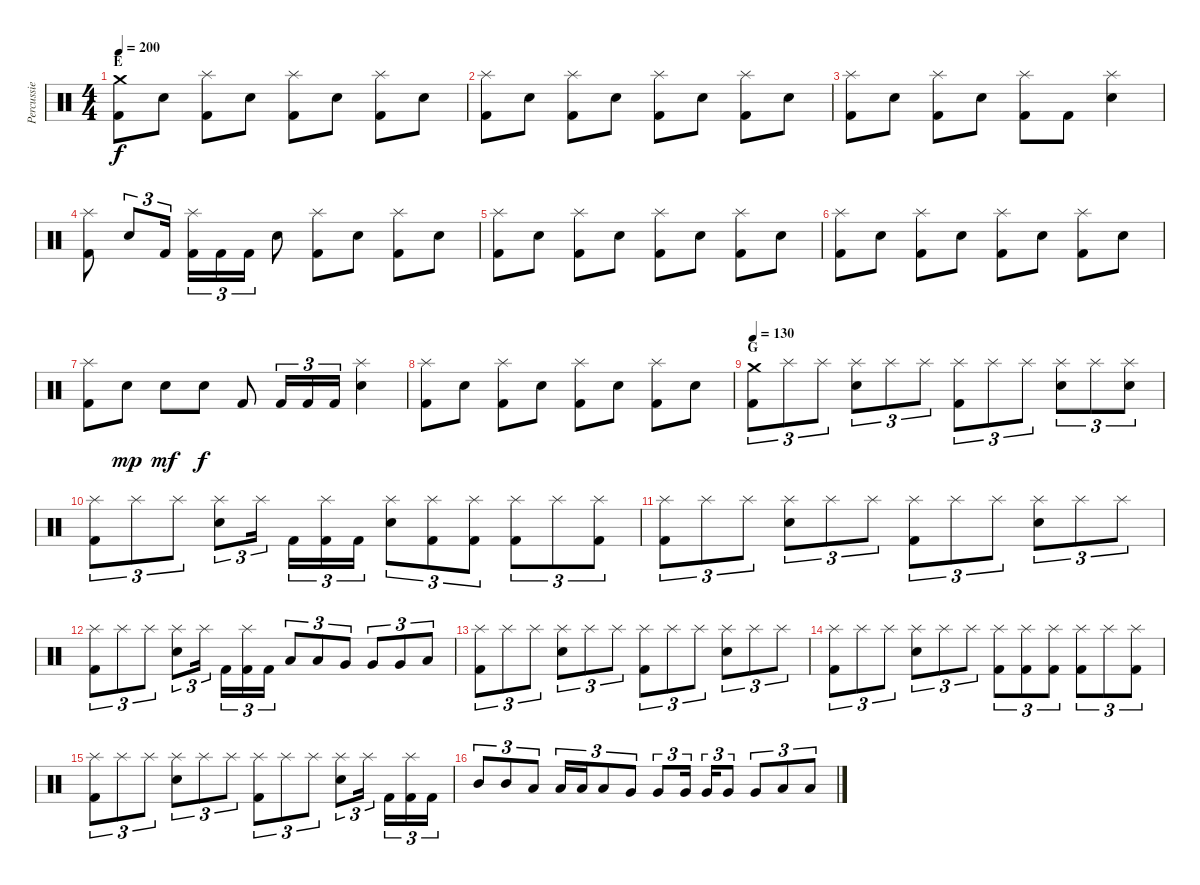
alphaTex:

\track ("Percussie" "Percussie") {instrument percussion}
\staff {score}
\articulation defaults
\ts (4 4)
\section ("" "E")
\tempo 200
\clef neutral
\ks c
("Crash medium (hit)" "Kick (hit) 2").8{dy f} "Electric Snare (hit)".8 ("Splash (hit)" "Kick (hit) 2").8 "Electric Snare (hit)".8 ("Splash (hit)" "Kick (hit) 2").8 "Electric Snare (hit)".8 ("Splash (hit)" "Kick (hit) 2").8 "Electric Snare (hit)".8 |
("Splash (hit)" "Kick (hit) 2").8 "Electric Snare (hit)".8 ("Splash (hit)" "Kick (hit) 2").8 "Electric Snare (hit)".8 ("Splash (hit)" "Kick (hit) 2").8 "Electric Snare (hit)".8 ("Splash (hit)" "Kick (hit) 2").8 "Electric Snare (hit)".8 |
("Splash (hit)" "Kick (hit) 2").8 "Electric Snare (hit)".8 ("Splash (hit)" "Kick (hit) 2").8 "Electric Snare (hit)".8 ("Splash (hit)" "Kick (hit) 2").8 "Kick (hit) 2".8 ("Splash (hit)" "Electric Snare (hit)").4 |
("Splash (hit)" "Kick (hit) 2").8 "Electric Snare (hit)".8{tu (3 2)} "Kick (hit) 2".16{tu (3 2)} ("Splash (hit)" "Kick (hit) 2").16{tu (3 2)} "Kick (hit) 2".16{tu (3 2)} "Kick (hit) 2".16{tu (3 2)} "Electric Snare (hit)".8 ("Splash (hit)" "Kick (hit) 2").8 "Electric Snare (hit)".8 ("Splash (hit)" "Kick (hit) 2").8 "Electric Snare (hit)".8 |
("Splash (hit)" "Kick (hit) 2").8 "Electric Snare (hit)".8 ("Splash (hit)" "Kick (hit) 2").8 "Electric Snare (hit)".8 ("Splash (hit)" "Kick (hit) 2").8 "Electric Snare (hit)".8 ("Splash (hit)" "Kick (hit) 2").8 "Electric Snare (hit)".8 |
("Splash (hit)" "Kick (hit) 2").8 "Electric Snare (hit)".8 ("Splash (hit)" "Kick (hit) 2").8 "Electric Snare (hit)".8 ("Splash (hit)" "Kick (hit) 2").8 "Electric Snare (hit)".8 ("Splash (hit)" "Kick (hit) 2").8 "Electric Snare (hit)".8 |
("Splash (hit)" "Kick (hit) 2").8 "Electric Snare (hit)".8{dy mp} "Electric Snare (hit)".8{dy mf} "Electric Snare (hit)".8{dy f} "Kick (hit) 2".8 "Kick (hit) 2".16{tu (3 2)} "Kick (hit) 2".16{tu (3 2)} "Kick (hit) 2".16{tu (3 2)} ("Splash (hit)" "Electric Snare (hit)").4 |
("Splash (hit)" "Kick (hit) 2").8 "Electric Snare (hit)".8 ("Splash (hit)" "Kick (hit) 2").8 "Electric Snare (hit)".8 ("Splash (hit)" "Kick (hit) 2").8 "Electric Snare (hit)".8 ("Splash (hit)" "Kick (hit) 2").8 "Electric Snare (hit)".8 |
\section ("" "G")
\tempo 130
("Crash medium (hit)" "Kick (hit) 2").8{tu (3 2)} "Splash (hit)".8{tu (3 2)} "Splash (hit)".8{tu (3 2)} ("Splash (hit)" "Electric Snare (hit)").8{tu (3 2)} "Splash (hit)".8{tu (3 2)} "Splash (hit)".8{tu (3 2)} ("Splash (hit)" "Kick (hit) 2").8{tu (3 2)} "Splash (hit)".8{tu (3 2)} "Splash (hit)".8{tu (3 2)} ("Splash (hit)" "Electric Snare (hit)").8{tu (3 2)} "Splash (hit)".8{tu (3 2)} ("Splash (hit)" "Electric Snare (hit)").8{tu (3 2)} |
("Splash (hit)" "Kick (hit) 2").8{tu (3 2)} "Splash (hit)".8{tu (3 2)} "Splash (hit)".8{tu (3 2)} ("Splash (hit)" "Electric Snare (hit)").8{tu (3 2)} "Splash (hit)".16{tu (3 2)} "Kick (hit) 2".16{tu (3 2)} ("Splash (hit)" "Kick (hit) 2").16{tu (3 2)} "Kick (hit) 2".16{tu (3 2)} ("Splash (hit)" "Electric Snare (hit)").8{tu (3 2)} ("Splash (hit)" "Kick (hit) 2").8{tu (3 2)} ("Splash (hit)" "Kick (hit) 2").8{tu (3 2)} ("Splash (hit)" "Kick (hit) 2").8{tu (3 2)} "Splash (hit)".8{tu (3 2)} ("Splash (hit)" "Kick (hit) 2").8{tu (3 2)} |
("Splash (hit)" "Kick (hit) 2").8{tu (3 2)} "Splash (hit)".8{tu (3 2)} "Splash (hit)".8{tu (3 2)} ("Splash (hit)" "Electric Snare (hit)").8{tu (3 2)} "Splash (hit)".8{tu (3 2)} "Splash (hit)".8{tu (3 2)} ("Splash (hit)" "Kick (hit) 2").8{tu (3 2)} "Splash (hit)".8{tu (3 2)} "Splash (hit)".8{tu (3 2)} ("Splash (hit)" "Electric Snare (hit)").8{tu (3 2)} "Splash (hit)".8{tu (3 2)} "Splash (hit)".8{tu (3 2)} |
("Splash (hit)" "Kick (hit) 2").8{tu (3 2)} "Splash (hit)".8{tu (3 2)} "Splash (hit)".8{tu (3 2)} ("Splash (hit)" "Electric Snare (hit)").8{tu (3 2)} "Splash (hit)".16{tu (3 2)} "Kick (hit) 2".16{tu (3 2)} ("Splash (hit)" "Kick (hit) 2").16{tu (3 2)} "Kick (hit) 2".16{tu (3 2)} "Low Tom (hit)".8{tu (3 2)} "Low Tom (hit)".8{tu (3 2)} "Very Low Tom (hit)".8{tu (3 2)} "Very Low Tom (hit)".8{tu (3 2)} "Very Low Tom (hit)".8{tu (3 2)} "Low Floor Tom (hit)".8{tu (3 2)} |
("Splash (hit)" "Kick (hit) 2").8{tu (3 2)} "Splash (hit)".8{tu (3 2)} "Splash (hit)".8{tu (3 2)} ("Splash (hit)" "Electric Snare (hit)").8{tu (3 2)} "Splash (hit)".8{tu (3 2)} "Splash (hit)".8{tu (3 2)} ("Splash (hit)" "Kick (hit) 2").8{tu (3 2)} "Splash (hit)".8{tu (3 2)} "Splash (hit)".8{tu (3 2)} ("Splash (hit)" "Electric Snare (hit)").8{tu (3 2)} "Splash (hit)".8{tu (3 2)} "Splash (hit)".8{tu (3 2)} |
("Splash (hit)" "Kick (hit) 2").8{tu (3 2)} "Splash (hit)".8{tu (3 2)} "Splash (hit)".8{tu (3 2)} ("Splash (hit)" "Electric Snare (hit)").8{tu (3 2)} "Splash (hit)".8{tu (3 2)} "Splash (hit)".8{tu (3 2)} ("Splash (hit)" "Kick (hit) 2").8{tu (3 2)} ("Splash (hit)" "Kick (hit) 2").8{tu (3 2)} ("Splash (hit)" "Kick (hit) 2").8{tu (3 2)} ("Splash (hit)" "Kick (hit) 2").8{tu (3 2)} "Splash (hit)".8{tu (3 2)} ("Splash (hit)" "Kick (hit) 2").8{tu (3 2)} |
("Splash (hit)" "Kick (hit) 2").8{tu (3 2)} "Splash (hit)".8{tu (3 2)} "Splash (hit)".8{tu (3 2)} ("Splash (hit)" "Electric Snare (hit)").8{tu (3 2)} "Splash (hit)".8{tu (3 2)} "Splash (hit)".8{tu (3 2)} ("Splash (hit)" "Kick (hit) 2").8{tu (3 2)} "Splash (hit)".8{tu (3 2)} "Splash (hit)".8{tu (3 2)} ("Splash (hit)" "Electric Snare (hit)").8{tu (3 2)} "Splash (hit)".16{tu (3 2)} "Kick (hit) 2".16{tu (3 2)} ("Splash (hit)" "Kick (hit) 2").16{tu (3 2)} "Kick (hit) 2".16{tu (3 2)} |
"Mid Tom (hit)".8{tu (3 2)} "Mid Tom (hit)".8{tu (3 2)} "Low Tom (hit)".8{tu (3 2)} "Low Tom (hit)".16{tu (3 2)} "Low Tom (hit)".16{tu (3 2)} "Low Tom (hit)".8{tu (3 2)} "Very Low Tom (hit)".8{tu (3 2)} "Very Low Tom (hit)".8{tu (3 2)} "Very Low Tom (hit)".16{tu (3 2)} "Very Low Tom (hit)".16{tu (3 2)} "Very Low Tom (hit)".8{tu (3 2)} "Very Low Tom (hit)".8{tu (3 2)} "Low Floor Tom (hit)".8{tu (3 2)} "Low Floor Tom (hit)".8{tu (3 2)}
